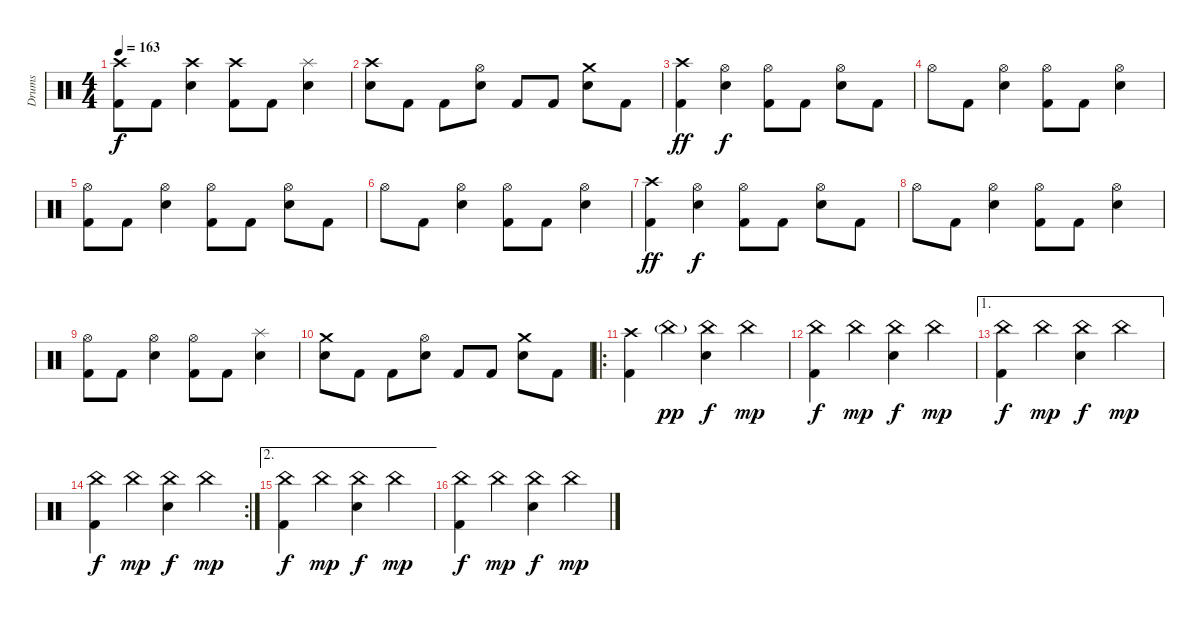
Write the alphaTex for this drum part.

\track ("Drums" "Drums") {instrument percussion}
\staff {score}
\articulation defaults
\ts (4 4)
\tempo 163
\clef neutral
\ks c
("Crash high (hit)" "Kick (hit) 2").8{dy f} "Kick (hit) 2".8 ("Crash high (hit)" "Snare (hit) 2").4 ("Crash high (hit)" "Kick (hit) 2").8 "Kick (hit) 2".8 ("Splash (hit)" "Snare (hit) 2").4 |
("Crash high (hit)" "Snare (hit) 2").8 "Kick (hit) 2".8 "Kick (hit) 2".8 ("Hi-Hat (open)" "Snare (hit) 2").8 "Kick (hit) 2".8 "Kick (hit) 2".8 ("Crash medium (hit)" "Snare (hit) 2").8 "Kick (hit) 2".8 |
("Crash high (hit)" "Kick (hit) 2").4{dy ff} ("Hi-Hat (open)" "Snare (hit) 2").4{dy f} ("Hi-Hat (open)" "Kick (hit) 2").8 "Kick (hit) 2".8 ("Hi-Hat (open)" "Snare (hit) 2").8 "Kick (hit) 2".8 |
"Hi-Hat (open)".8 "Kick (hit) 2".8 ("Hi-Hat (open)" "Snare (hit) 2").4 ("Hi-Hat (open)" "Kick (hit) 2").8 "Kick (hit) 2".8 ("Hi-Hat (open)" "Snare (hit) 2").4 |
("Hi-Hat (open)" "Kick (hit) 2").8 "Kick (hit) 2".8 ("Hi-Hat (open)" "Snare (hit) 2").4 ("Hi-Hat (open)" "Kick (hit) 2").8 "Kick (hit) 2".8 ("Hi-Hat (open)" "Snare (hit) 2").8 "Kick (hit) 2".8 |
"Hi-Hat (open)".8 "Kick (hit) 2".8 ("Hi-Hat (open)" "Snare (hit) 2").4 ("Hi-Hat (open)" "Kick (hit) 2").8 "Kick (hit) 2".8 ("Hi-Hat (open)" "Snare (hit) 2").4 |
("Crash high (hit)" "Kick (hit) 2").4{dy ff} ("Hi-Hat (open)" "Snare (hit) 2").4{dy f} ("Hi-Hat (open)" "Kick (hit) 2").8 "Kick (hit) 2".8 ("Hi-Hat (open)" "Snare (hit) 2").8 "Kick (hit) 2".8 |
"Hi-Hat (open)".8 "Kick (hit) 2".8 ("Hi-Hat (open)" "Snare (hit) 2").4 ("Hi-Hat (open)" "Kick (hit) 2").8 "Kick (hit) 2".8 ("Hi-Hat (open)" "Snare (hit) 2").4 |
("Hi-Hat (open)" "Kick (hit) 2").8 "Kick (hit) 2".8 ("Hi-Hat (open)" "Snare (hit) 2").4 ("Hi-Hat (open)" "Kick (hit) 2").8 "Kick (hit) 2".8 ("Splash (hit)" "Snare (hit) 2").4 |
("Crash medium (hit)" "Snare (hit) 2").8 "Kick (hit) 2".8 "Kick (hit) 2".8 ("Hi-Hat (open)" "Snare (hit) 2").8 "Kick (hit) 2".8 "Kick (hit) 2".8 ("Crash medium (hit)" "Snare (hit) 2").8 "Kick (hit) 2".8 |
\ro
("Crash high (hit)" "Kick (hit) 2").4 "China (hit)"{g}.4{dy pp} ("China (hit)" "Snare (hit) 2").4{dy f} "China (hit)".4{dy mp} |
("China (hit)" "Kick (hit) 2").4{dy f} "China (hit)".4{dy mp} ("China (hit)" "Snare (hit) 2").4{dy f} "China (hit)".4{dy mp} |
\ae 1
("China (hit)" "Kick (hit) 2").4{dy f} "China (hit)".4{dy mp} ("China (hit)" "Snare (hit) 2").4{dy f} "China (hit)".4{dy mp} |
\rc 2
("China (hit)" "Kick (hit) 2").4{dy f} "China (hit)".4{dy mp} ("China (hit)" "Snare (hit) 2").4{dy f} "China (hit)".4{dy mp} |
\ae 2
("China (hit)" "Kick (hit) 2").4{dy f} "China (hit)".4{dy mp} ("China (hit)" "Snare (hit) 2").4{dy f} "China (hit)".4{dy mp} |
("China (hit)" "Kick (hit) 2").4{dy f} "China (hit)".4{dy mp} ("China (hit)" "Snare (hit) 2").4{dy f} "China (hit)".4{dy mp}
